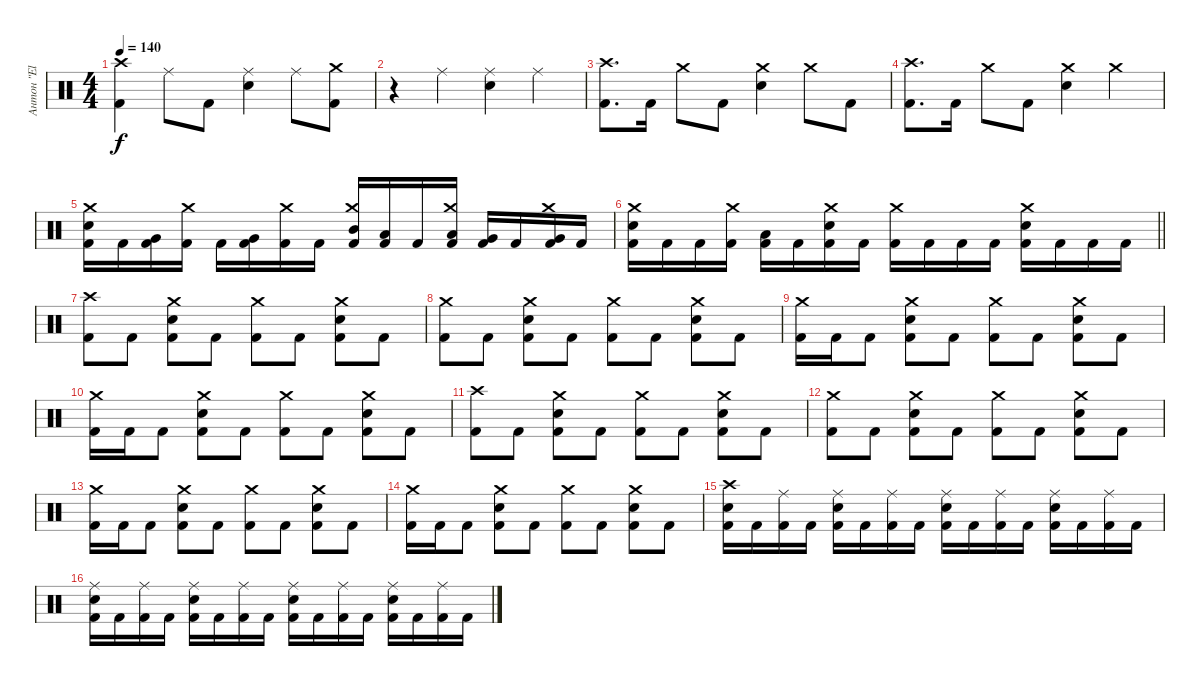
\track ("Антон \"El Bastardo\" Смольянин" "Антон \"El ") {instrument percussion}
\staff {score}
\articulation defaults
\ts (4 4)
\tempo 140
\clef neutral
\ks c
("Crash high (hit)" "Kick (hit) 2").4{dy f} "Ride (middle)".8 "Kick (hit) 2".8 ("Ride (middle)" "Electric Snare (hit)").4 "Ride (middle)".8 ("Crash medium (hit)" "Kick (hit) 2").8 |
r.4 "Ride (middle)".4 ("Ride (middle)" "Electric Snare (hit)").4 "Ride (middle)".4 |
("Crash high (hit)" "Kick (hit) 2").8{d} "Kick (hit) 2".16 "Crash medium (hit)".8 "Kick (hit) 2".8 ("Crash medium (hit)" "Electric Snare (hit)").4 "Crash medium (hit)".8 "Kick (hit) 2".8 |
("Crash high (hit)" "Kick (hit) 2").8{d} "Kick (hit) 2".16 "Crash medium (hit)".8 "Kick (hit) 2".8 ("Crash medium (hit)" "Electric Snare (hit)").4 "Crash medium (hit)".4 |
("Crash medium (hit)" "Electric Snare (hit)" "Kick (hit) 2").16 "Kick (hit) 2".16 ("Very Low Tom (hit)" "Kick (hit) 2").16 ("Crash medium (hit)" "Kick (hit) 2").16 "Kick (hit) 2".16 ("Very Low Tom (hit)" "Kick (hit) 2").16 ("Crash medium (hit)" "Kick (hit) 2").16 "Kick (hit) 2".16 ("Crash medium (hit)" "Mid Tom (hit)" "Kick (hit) 2").16 ("Low Tom (hit)" "Kick (hit) 2").16 "Kick (hit) 2".16 ("Crash medium (hit)" "Low Tom (hit)" "Kick (hit) 2").16 ("Very Low Tom (hit)" "Kick (hit) 2").16 "Kick (hit) 2".16 ("Crash medium (hit)" "Very Low Tom (hit)" "Kick (hit) 2").16 "Kick (hit) 2".16 |
\barLineRight lightlight
("Crash medium (hit)" "Electric Snare (hit)" "Kick (hit) 2").16 "Kick (hit) 2".16 "Kick (hit) 2".16 ("Crash medium (hit)" "Kick (hit) 2").16 ("Low Tom (hit)" "Kick (hit) 2").16 "Kick (hit) 2".16 ("Crash medium (hit)" "Electric Snare (hit)" "Kick (hit) 2").16 "Kick (hit) 2".16 ("Crash medium (hit)" "Kick (hit) 2").16 "Kick (hit) 2".16 "Kick (hit) 2".16 "Kick (hit) 2".16 ("Crash medium (hit)" "Electric Snare (hit)" "Kick (hit) 2").16 "Kick (hit) 2".16 "Kick (hit) 2".16 "Kick (hit) 2".16 |
("Crash high (hit)" "Kick (hit) 2").8 "Kick (hit) 2".8 ("Crash medium (hit)" "Electric Snare (hit)" "Kick (hit) 2").8 "Kick (hit) 2".8 ("Crash medium (hit)" "Kick (hit) 2").8 "Kick (hit) 2".8 ("Crash medium (hit)" "Electric Snare (hit)" "Kick (hit) 2").8 "Kick (hit) 2".8 |
("Crash medium (hit)" "Kick (hit) 2").8 "Kick (hit) 2".8 ("Crash medium (hit)" "Electric Snare (hit)" "Kick (hit) 2").8 "Kick (hit) 2".8 ("Crash medium (hit)" "Kick (hit) 2").8 "Kick (hit) 2".8 ("Crash medium (hit)" "Electric Snare (hit)" "Kick (hit) 2").8 "Kick (hit) 2".8 |
("Crash medium (hit)" "Kick (hit) 2").16 "Kick (hit) 2".16 "Kick (hit) 2".8 ("Crash medium (hit)" "Electric Snare (hit)" "Kick (hit) 2").8 "Kick (hit) 2".8 ("Crash medium (hit)" "Kick (hit) 2").8 "Kick (hit) 2".8 ("Crash medium (hit)" "Electric Snare (hit)" "Kick (hit) 2").8 "Kick (hit) 2".8 |
("Crash medium (hit)" "Kick (hit) 2").16 "Kick (hit) 2".16 "Kick (hit) 2".8 ("Crash medium (hit)" "Electric Snare (hit)" "Kick (hit) 2").8 "Kick (hit) 2".8 ("Crash medium (hit)" "Kick (hit) 2").8 "Kick (hit) 2".8 ("Crash medium (hit)" "Electric Snare (hit)" "Kick (hit) 2").8 "Kick (hit) 2".8 |
("Crash high (hit)" "Kick (hit) 2").8 "Kick (hit) 2".8 ("Crash medium (hit)" "Electric Snare (hit)" "Kick (hit) 2").8 "Kick (hit) 2".8 ("Crash medium (hit)" "Kick (hit) 2").8 "Kick (hit) 2".8 ("Crash medium (hit)" "Electric Snare (hit)" "Kick (hit) 2").8 "Kick (hit) 2".8 |
("Crash medium (hit)" "Kick (hit) 2").8 "Kick (hit) 2".8 ("Crash medium (hit)" "Electric Snare (hit)" "Kick (hit) 2").8 "Kick (hit) 2".8 ("Crash medium (hit)" "Kick (hit) 2").8 "Kick (hit) 2".8 ("Crash medium (hit)" "Electric Snare (hit)" "Kick (hit) 2").8 "Kick (hit) 2".8 |
("Crash medium (hit)" "Kick (hit) 2").16 "Kick (hit) 2".16 "Kick (hit) 2".8 ("Crash medium (hit)" "Electric Snare (hit)" "Kick (hit) 2").8 "Kick (hit) 2".8 ("Crash medium (hit)" "Kick (hit) 2").8 "Kick (hit) 2".8 ("Crash medium (hit)" "Electric Snare (hit)" "Kick (hit) 2").8 "Kick (hit) 2".8 |
("Crash medium (hit)" "Kick (hit) 2").16 "Kick (hit) 2".16 "Kick (hit) 2".8 ("Crash medium (hit)" "Electric Snare (hit)" "Kick (hit) 2").8 "Kick (hit) 2".8 ("Crash medium (hit)" "Kick (hit) 2").8 "Kick (hit) 2".8 ("Crash medium (hit)" "Electric Snare (hit)" "Kick (hit) 2").8 "Kick (hit) 2".8 |
("Crash high (hit)" "Electric Snare (hit)" "Kick (hit) 2").16 "Kick (hit) 2".16 ("Ride (middle)" "Kick (hit) 2").16 "Kick (hit) 2".16 ("Ride (middle)" "Electric Snare (hit)" "Kick (hit) 2").16 "Kick (hit) 2".16 ("Ride (middle)" "Kick (hit) 2").16 "Kick (hit) 2".16 ("Ride (middle)" "Electric Snare (hit)" "Kick (hit) 2").16 "Kick (hit) 2".16 ("Ride (middle)" "Kick (hit) 2").16 "Kick (hit) 2".16 ("Ride (middle)" "Electric Snare (hit)" "Kick (hit) 2").16 "Kick (hit) 2".16 ("Ride (middle)" "Kick (hit) 2").16 "Kick (hit) 2".16 |
("Ride (middle)" "Electric Snare (hit)" "Kick (hit) 2").16 "Kick (hit) 2".16 ("Ride (middle)" "Kick (hit) 2").16 "Kick (hit) 2".16 ("Ride (middle)" "Electric Snare (hit)" "Kick (hit) 2").16 "Kick (hit) 2".16 ("Ride (middle)" "Kick (hit) 2").16 "Kick (hit) 2".16 ("Ride (middle)" "Electric Snare (hit)" "Kick (hit) 2").16 "Kick (hit) 2".16 ("Ride (middle)" "Kick (hit) 2").16 "Kick (hit) 2".16 ("Ride (middle)" "Electric Snare (hit)" "Kick (hit) 2").16 "Kick (hit) 2".16 ("Ride (middle)" "Kick (hit) 2").16 "Kick (hit) 2".16
